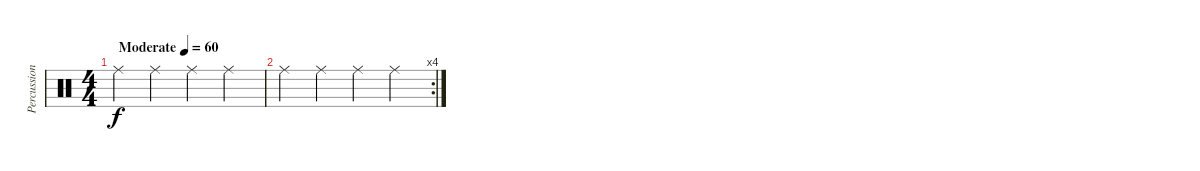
\track ("Percussion" "Percussion") {mute instrument percussion}
\staff {score}
\articulation defaults
\ts (4 4)
\tempo (60 "Moderate")
\clef neutral
\ks c "Ride (middle)".4{dy f} "Ride (middle)".4 "Ride (middle)".4 "Ride (middle)".4
|
\rc 4 "Ride (middle)".4 "Ride (middle)".4 "Ride (middle)".4 "Ride (middle)".4
